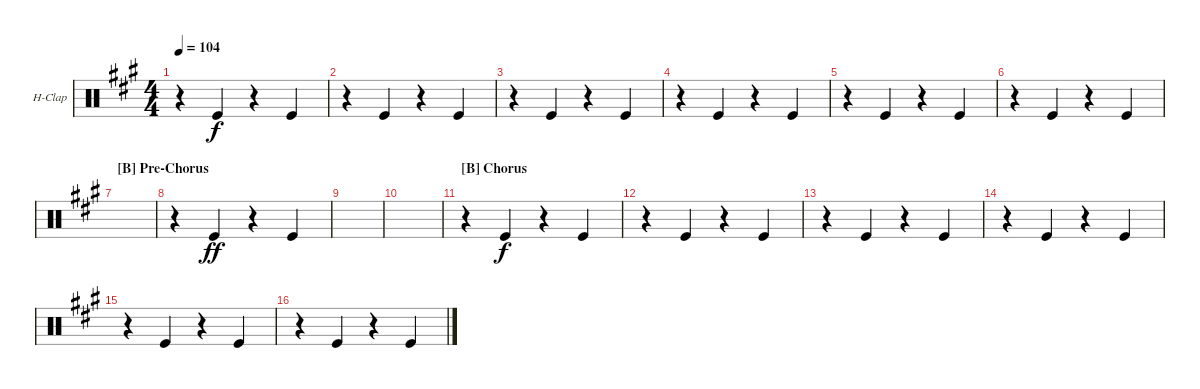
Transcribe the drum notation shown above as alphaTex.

\defaultSystemsLayout 4
\bracketExtendMode groupsimilarinstruments
\firstSystemTrackNameOrientation horizontal
\otherSystemsTrackNameOrientation horizontal
\track ("Hand Clap" "H-Clap") {instrument percussion}
\staff {score}
\articulation defaults
\ts (4 4)
\tempo 104
\clef neutral
\ks a
r.4{dy f} "Kick (hit)".4 r.4 "Kick (hit)".4 |
r.4 "Kick (hit)".4 r.4 "Kick (hit)".4 |
r.4 "Kick (hit)".4 r.4 "Kick (hit)".4 |
r.4 "Kick (hit)".4 r.4 "Kick (hit)".4 |
r.4 "Kick (hit)".4 r.4 "Kick (hit)".4 |
r.4 "Kick (hit)".4 r.4 "Kick (hit)".4 |
\section ("B" "Pre-Chorus")
|
r.4 "Kick (hit)".4{dy ff} r.4 "Kick (hit)".4 |
|
|
\section ("B" "Chorus")
r.4 "Kick (hit)".4{dy f} r.4 "Kick (hit)".4 |
r.4 "Kick (hit)".4 r.4 "Kick (hit)".4 |
r.4 "Kick (hit)".4 r.4 "Kick (hit)".4 |
r.4 "Kick (hit)".4 r.4 "Kick (hit)".4 |
r.4 "Kick (hit)".4 r.4 "Kick (hit)".4 |
r.4 "Kick (hit)".4 r.4 "Kick (hit)".4
